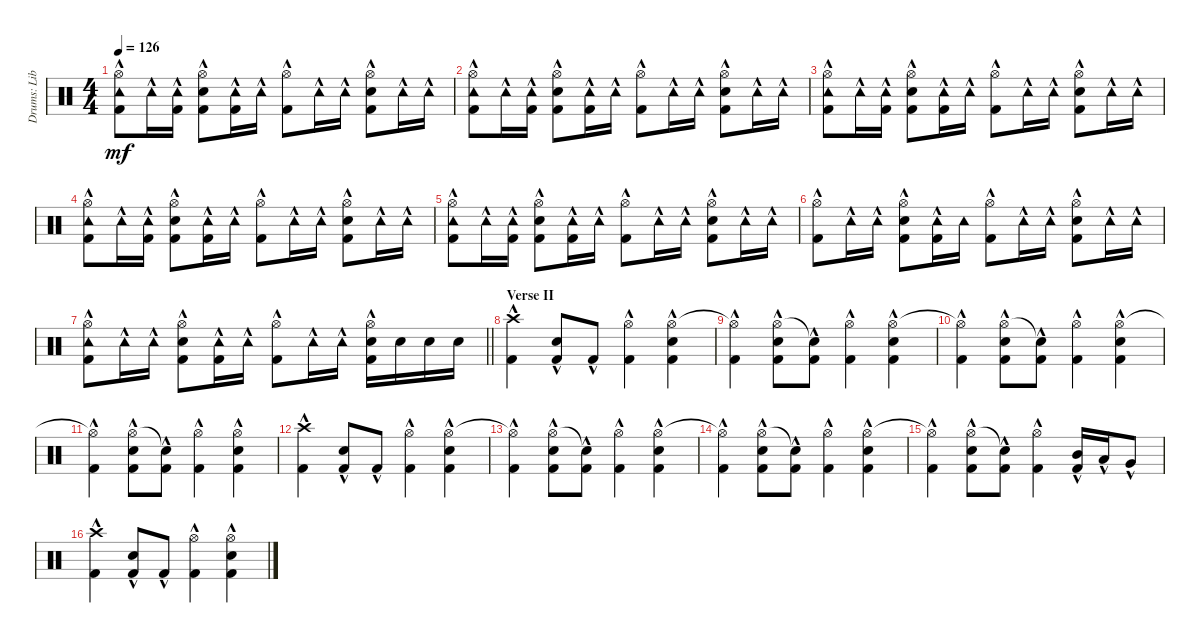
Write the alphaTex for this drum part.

\track ("Drums: Liberty" "Drums: Lib") {instrument percussion}
\staff {score}
\articulation defaults
\ts (4 4)
\tempo 126
\clef neutral
\ks c
("Hi-Hat (open)" "Tambourine (hit)"{hac} "Kick (hit) 2"{hac}).8{dy mf} "Tambourine (hit)"{hac}.16 ("Tambourine (hit)"{hac} "Kick (hit) 2"{hac}).16 ("Hi-Hat (open)" "Snare (hit) 2"{hac} "Kick (hit) 2").8 ("Tambourine (hit)"{hac} "Kick (hit) 2"{hac}).16 "Tambourine (hit)"{hac}.16 ("Hi-Hat (open)" "Kick (hit) 2"{hac}).8 "Tambourine (hit)"{hac}.16 "Tambourine (hit)"{hac}.16 ("Hi-Hat (open)" "Snare (hit) 2"{hac} "Kick (hit) 2").8 "Tambourine (hit)"{hac}.16 "Tambourine (hit)"{hac}.16 |
("Hi-Hat (open)" "Tambourine (hit)"{hac} "Kick (hit) 2"{hac}).8 "Tambourine (hit)"{hac}.16 ("Tambourine (hit)"{hac} "Kick (hit) 2"{hac}).16 ("Hi-Hat (open)" "Snare (hit) 2"{hac} "Kick (hit) 2").8 ("Tambourine (hit)"{hac} "Kick (hit) 2"{hac}).16 "Tambourine (hit)"{hac}.16 ("Hi-Hat (open)" "Kick (hit) 2"{hac}).8 "Tambourine (hit)"{hac}.16 "Tambourine (hit)"{hac}.16 ("Hi-Hat (open)" "Snare (hit) 2"{hac} "Kick (hit) 2").8 "Tambourine (hit)"{hac}.16 "Tambourine (hit)"{hac}.16 |
("Hi-Hat (open)" "Tambourine (hit)"{hac} "Kick (hit) 2"{hac}).8 "Tambourine (hit)"{hac}.16 ("Tambourine (hit)"{hac} "Kick (hit) 2"{hac}).16 ("Hi-Hat (open)" "Snare (hit) 2"{hac} "Kick (hit) 2").8 ("Tambourine (hit)"{hac} "Kick (hit) 2"{hac}).16 "Tambourine (hit)"{hac}.16 ("Hi-Hat (open)" "Kick (hit) 2"{hac}).8 "Tambourine (hit)"{hac}.16 "Tambourine (hit)"{hac}.16 ("Hi-Hat (open)" "Snare (hit) 2"{hac} "Kick (hit) 2").8 "Tambourine (hit)"{hac}.16 "Tambourine (hit)"{hac}.16 |
("Hi-Hat (open)" "Tambourine (hit)"{hac} "Kick (hit) 2"{hac}).8 "Tambourine (hit)"{hac}.16 ("Tambourine (hit)"{hac} "Kick (hit) 2"{hac}).16 ("Hi-Hat (open)" "Snare (hit) 2"{hac} "Kick (hit) 2").8 ("Tambourine (hit)"{hac} "Kick (hit) 2"{hac}).16 "Tambourine (hit)"{hac}.16 ("Hi-Hat (open)" "Kick (hit) 2"{hac}).8 "Tambourine (hit)"{hac}.16 "Tambourine (hit)"{hac}.16 ("Hi-Hat (open)" "Snare (hit) 2"{hac} "Kick (hit) 2").8 "Tambourine (hit)"{hac}.16 "Tambourine (hit)"{hac}.16 |
("Hi-Hat (open)" "Tambourine (hit)"{hac} "Kick (hit) 2"{hac}).8 "Tambourine (hit)"{hac}.16 ("Tambourine (hit)"{hac} "Kick (hit) 2"{hac}).16 ("Hi-Hat (open)" "Snare (hit) 2"{hac} "Kick (hit) 2").8 ("Tambourine (hit)"{hac} "Kick (hit) 2"{hac}).16 "Tambourine (hit)"{hac}.16 ("Hi-Hat (open)" "Kick (hit) 2"{hac}).8 "Tambourine (hit)"{hac}.16 "Tambourine (hit)"{hac}.16 ("Hi-Hat (open)" "Snare (hit) 2"{hac} "Kick (hit) 2").8 "Tambourine (hit)"{hac}.16 "Tambourine (hit)"{hac}.16 |
("Hi-Hat (open)"{hac} "Kick (hit) 2"{hac}).8 "Tambourine (hit)"{hac}.16 "Tambourine (hit)"{hac}.16 ("Hi-Hat (open)"{hac} "Snare (hit) 2"{hac} "Kick (hit) 2"{hac}).8 ("Tambourine (hit)" "Kick (hit) 2"{hac}).16 "Tambourine (hit)".16 ("Hi-Hat (open)"{hac} "Kick (hit) 2"{hac}).8 "Tambourine (hit)"{hac}.16 "Tambourine (hit)"{hac}.16 ("Hi-Hat (open)"{hac} "Snare (hit) 2"{hac} "Kick (hit) 2"{hac}).8 "Tambourine (hit)"{hac}.16 "Tambourine (hit)"{hac}.16 |
\barLineRight lightlight
("Hi-Hat (open)"{hac} "Tambourine (hit)"{hac} "Kick (hit) 2"{hac}).8 "Tambourine (hit)"{hac}.16 "Tambourine (hit)"{hac}.16 ("Hi-Hat (open)"{hac} "Snare (hit) 2"{hac} "Kick (hit) 2"{hac}).8 ("Tambourine (hit)"{hac} "Kick (hit) 2"{hac}).16 "Tambourine (hit)"{hac}.16 ("Hi-Hat (open)"{hac} "Kick (hit) 2"{hac}).8 "Tambourine (hit)"{hac}.16 "Tambourine (hit)"{hac}.16 ("Hi-Hat (open)"{hac} "Snare (hit) 2"{hac} "Kick (hit) 2"{hac}).16 "Snare (hit) 2".16 "Snare (hit) 2".16 "Snare (hit) 2".16 |
\section ("" "Verse II")
("Crash high (hit)"{hac} "Kick (hit) 2"{hac}).4 ("Snare (hit) 2"{hac} "Kick (hit) 2"{hac}).8 "Kick (hit) 2"{hac}.8 ("Hi-Hat (open)"{hac} "Kick (hit) 2"{hac}).4 ("Hi-Hat (open)"{hac} "Snare (hit) 2"{hac} "Kick (hit) 2"{hac}).4 |
("Hi-Hat (open)"{t} "Kick (hit) 2"{hac}).4 ("Hi-Hat (open)" "Snare (hit) 2"{hac} "Kick (hit) 2"{hac}).8 ("Snare (hit)"{t} "Kick (hit) 2"{hac}).8 ("Hi-Hat (open)"{hac} "Kick (hit) 2"{hac}).4 ("Hi-Hat (open)"{hac} "Snare (hit) 2"{hac} "Kick (hit) 2"{hac}).4 |
("Hi-Hat (open)"{t} "Kick (hit) 2"{hac}).4 ("Hi-Hat (open)" "Snare (hit) 2"{hac} "Kick (hit) 2"{hac}).8 ("Snare (hit)"{t} "Kick (hit) 2"{hac}).8 ("Hi-Hat (open)"{hac} "Kick (hit) 2"{hac}).4 ("Hi-Hat (open)"{hac} "Snare (hit) 2"{hac} "Kick (hit) 2"{hac}).4 |
("Hi-Hat (open)"{t} "Kick (hit) 2"{hac}).4 ("Hi-Hat (open)" "Snare (hit) 2"{hac} "Kick (hit) 2"{hac}).8 ("Snare (hit)"{t} "Kick (hit) 2"{hac}).8 ("Hi-Hat (open)"{hac} "Kick (hit) 2"{hac}).4 ("Hi-Hat (open)"{hac} "Snare (hit) 2"{hac} "Kick (hit) 2"{hac}).4 |
("Crash high (hit)"{hac} "Kick (hit) 2"{hac}).4 ("Snare (hit) 2"{hac} "Kick (hit) 2"{hac}).8 "Kick (hit) 2"{hac}.8 ("Hi-Hat (open)"{hac} "Kick (hit) 2"{hac}).4 ("Hi-Hat (open)"{hac} "Snare (hit) 2"{hac} "Kick (hit) 2"{hac}).4 |
("Hi-Hat (open)"{t} "Kick (hit) 2"{hac}).4 ("Hi-Hat (open)" "Snare (hit) 2"{hac} "Kick (hit) 2"{hac}).8 ("Snare (hit)"{t} "Kick (hit) 2"{hac}).8 ("Hi-Hat (open)"{hac} "Kick (hit) 2"{hac}).4 ("Hi-Hat (open)"{hac} "Snare (hit) 2"{hac} "Kick (hit) 2"{hac}).4 |
("Hi-Hat (open)"{t} "Kick (hit) 2"{hac}).4 ("Hi-Hat (open)" "Snare (hit) 2"{hac} "Kick (hit) 2"{hac}).8 ("Snare (hit)"{t} "Kick (hit) 2"{hac}).8 ("Hi-Hat (open)"{hac} "Kick (hit) 2"{hac}).4 ("Hi-Hat (open)"{hac} "Snare (hit) 2"{hac} "Kick (hit) 2"{hac}).4 |
("Hi-Hat (open)"{t} "Kick (hit) 2"{hac}).4 ("Hi-Hat (open)" "Snare (hit) 2"{hac} "Kick (hit) 2"{hac}).8 ("Snare (hit)"{t} "Kick (hit) 2"{hac}).8 ("Hi-Hat (open)"{hac} "Kick (hit) 2"{hac}).4 ("Mid Tom (hit)"{hac} "Kick (hit) 2"{hac}).16 "Low Tom (hit)"{hac}.16 "Very Low Tom (hit)"{hac}.8 |
("Crash high (hit)"{hac} "Kick (hit) 2"{hac}).4 ("Snare (hit) 2"{hac} "Kick (hit) 2"{hac}).8 "Kick (hit) 2"{hac}.8 ("Hi-Hat (open)"{hac} "Kick (hit) 2"{hac}).4 ("Hi-Hat (open)"{hac} "Snare (hit) 2"{hac} "Kick (hit) 2"{hac}).4
